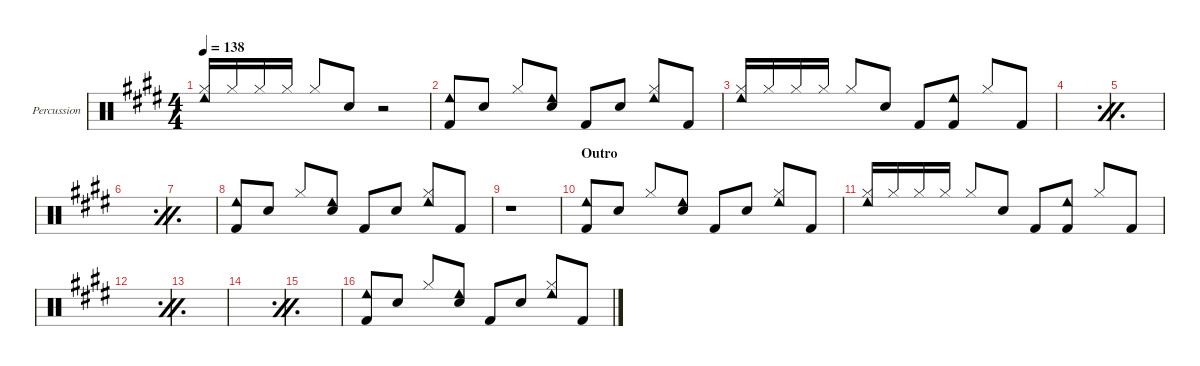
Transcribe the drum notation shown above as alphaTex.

\defaultSystemsLayout 4
\hideDynamics
\bracketExtendMode nobrackets
\firstSystemTrackNameOrientation horizontal
\track ("Percussion" "Percussion") {defaultSystemsLayout 4 mute instrument percussion}
\staff {score}
\articulation defaults
\ts (4 4)
\tempo 138
\clef neutral
\scale
0.244132
\ks c#minor
("Hi-Hat (closed)"{acc forcenatural} "Cowbell low (hit)"{acc forcenatural}).16{dy f beam Up} "Hi-Hat (closed)"{acc forcenatural}.16{beam Up} "Hi-Hat (closed)"{acc forcenatural}.16{beam Up} "Hi-Hat (closed)"{acc forcenatural}.16{beam Up beam split} "Hi-Hat (closed)"{acc forcenatural}.8{beam Up} "Snare (hit) 2"{acc forcenatural}.8{beam Up} r.2{beam Down} |
\scale
0.267605 ("Kick (hit) 2"{acc forcenatural} "Cowbell low (hit)"{acc forcenatural}).8{beam Up} "Snare (hit) 2"{acc forcenatural}.8{beam Up} "Hi-Hat (closed)"{acc forcenatural}.8{beam Up} ("Snare (hit) 2"{acc forcenatural} "Cowbell low (hit)"{acc forcenatural}).8{beam Up} "Kick (hit) 2"{acc forcenatural}.8{beam Up} "Snare (hit) 2"{acc forcenatural}.8{beam Up} ("Hi-Hat (closed)"{acc forcenatural} "Cowbell low (hit)"{acc forcenatural}).8{beam Up} "Kick (hit) 2"{acc forcenatural}.8{beam Up} |
\scale
0.244132 ("Hi-Hat (closed)"{acc forcenatural} "Cowbell low (hit)"{acc forcenatural}).16{beam Up} "Hi-Hat (closed)"{acc forcenatural}.16{beam Up} "Hi-Hat (closed)"{acc forcenatural}.16{beam Up} "Hi-Hat (closed)"{acc forcenatural}.16{beam Up beam split} "Hi-Hat (closed)"{acc forcenatural}.8{beam Up} "Snare (hit) 2"{acc forcenatural}.8{beam Up} "Kick (hit) 2"{acc forcenatural}.8{beam Up} ("Kick (hit) 2"{acc forcenatural} "Cowbell low (hit)"{acc forcenatural}).8{beam Up} "Hi-Hat (closed)"{acc forcenatural}.8{beam Up} "Kick (hit) 2"{acc forcenatural}.8{beam Up} |
\simile firstofdouble
\scale
0.244132 |
\simile secondofdouble
\scale
0.244132 |
\simile firstofdouble
\scale
0.2665 |
\simile secondofdouble
\scale
0.243026 |
\simile none
\scale
0.243026 ("Kick (hit) 2"{acc forcenatural} "Cowbell low (hit)"{acc forcenatural}).8{beam Up} "Snare (hit) 2"{acc forcenatural}.8{beam Up} "Hi-Hat (closed)"{acc forcenatural}.8{beam Up} ("Snare (hit) 2"{acc forcenatural} "Cowbell low (hit)"{acc forcenatural}).8{beam Up} "Kick (hit) 2"{acc forcenatural}.8{beam Up} "Snare (hit) 2"{acc forcenatural}.8{beam Up} ("Hi-Hat (closed)"{acc forcenatural} "Cowbell low (hit)"{acc forcenatural}).8{beam Up} "Kick (hit) 2"{acc forcenatural}.8{beam Up} |
\scale
0.247447 r.1{beam Down} |
\section ("" "Outro")
\scale
0.267605 ("Kick (hit) 2"{acc forcenatural} "Cowbell low (hit)"{acc forcenatural}).8{beam Up} "Snare (hit) 2"{acc forcenatural}.8{beam Up} "Hi-Hat (closed)"{acc forcenatural}.8{beam Up} ("Snare (hit) 2"{acc forcenatural} "Cowbell low (hit)"{acc forcenatural}).8{beam Up} "Kick (hit) 2"{acc forcenatural}.8{beam Up} "Snare (hit) 2"{acc forcenatural}.8{beam Up} ("Hi-Hat (closed)"{acc forcenatural} "Cowbell low (hit)"{acc forcenatural}).8{beam Up} "Kick (hit) 2"{acc forcenatural}.8{beam Up} |
\scale
0.244132 ("Hi-Hat (closed)"{acc forcenatural} "Cowbell low (hit)"{acc forcenatural}).16{beam Up} "Hi-Hat (closed)"{acc forcenatural}.16{beam Up} "Hi-Hat (closed)"{acc forcenatural}.16{beam Up} "Hi-Hat (closed)"{acc forcenatural}.16{beam Up beam split} "Hi-Hat (closed)"{acc forcenatural}.8{beam Up} "Snare (hit) 2"{acc forcenatural}.8{beam Up} "Kick (hit) 2"{acc forcenatural}.8{beam Up} ("Kick (hit) 2"{acc forcenatural} "Cowbell low (hit)"{acc forcenatural}).8{beam Up} "Hi-Hat (closed)"{acc forcenatural}.8{beam Up} "Kick (hit) 2"{acc forcenatural}.8{beam Up} |
\simile firstofdouble
\scale
0.244132 |
\simile secondofdouble
\scale
0.244132 |
\simile firstofdouble
\scale
0.267605 |
\simile secondofdouble
\scale
0.244132 |
\simile none
\scale
0.244132 ("Kick (hit) 2"{acc forcenatural} "Cowbell low (hit)"{acc forcenatural}).8{beam Up} "Snare (hit) 2"{acc forcenatural}.8{beam Up} "Hi-Hat (closed)"{acc forcenatural}.8{beam Up} ("Snare (hit) 2"{acc forcenatural} "Cowbell low (hit)"{acc forcenatural}).8{beam Up} "Kick (hit) 2"{acc forcenatural}.8{beam Up} "Snare (hit) 2"{acc forcenatural}.8{beam Up} ("Hi-Hat (closed)"{acc forcenatural} "Cowbell low (hit)"{acc forcenatural}).8{beam Up} "Kick (hit) 2"{acc forcenatural}.8{beam Up}
